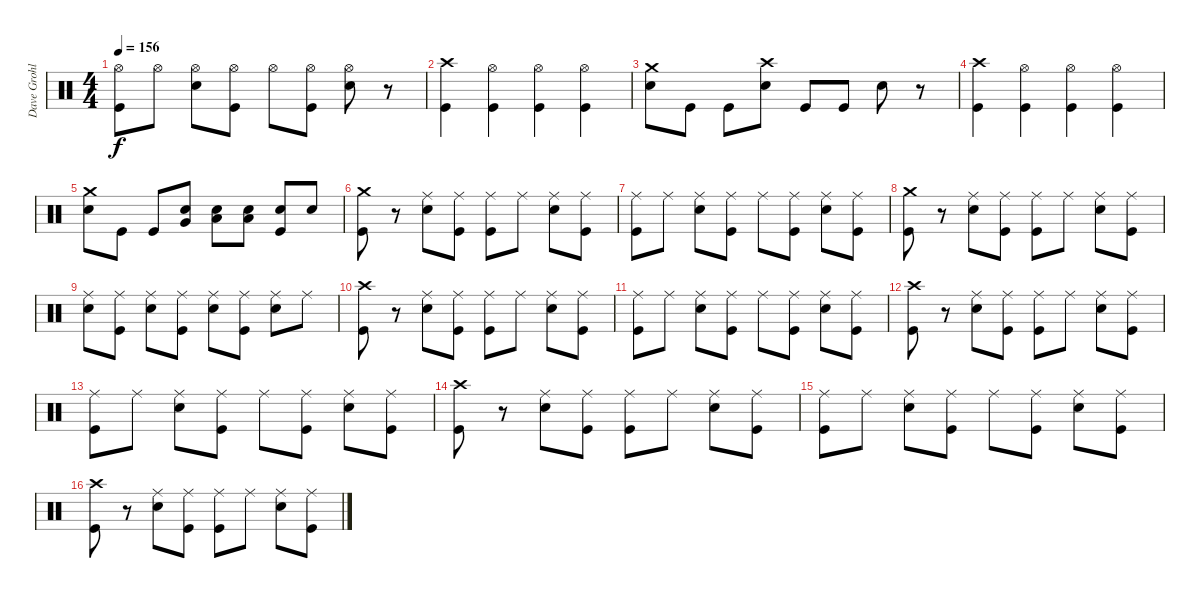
\track ("Dave Grohl - Drums" "Dave Grohl") {instrument percussion}
\staff {score}
\articulation defaults
\ts (4 4)
\tempo 156
\clef neutral
\ks c
("Hi-Hat (open)" "Kick (hit)").8{dy f} "Hi-Hat (open)".8 ("Hi-Hat (open)" "Snare (hit) 2").8 ("Hi-Hat (open)" "Kick (hit)").8 "Hi-Hat (open)".8 ("Hi-Hat (open)" "Kick (hit)").8 ("Hi-Hat (open)" "Snare (hit) 2").8 r.8 |
("Crash high (hit)" "Kick (hit)").4 ("Hi-Hat (open)" "Kick (hit)").4 ("Hi-Hat (open)" "Kick (hit)").4 ("Hi-Hat (open)" "Kick (hit)").4 |
("Crash medium (hit)" "Snare (hit) 2").8 "Kick (hit)".8 "Kick (hit)".8 ("Crash high (hit)" "Snare (hit) 2").8 "Kick (hit)".8 "Kick (hit)".8 "Snare (hit) 2".8 r.8 |
("Crash high (hit)" "Kick (hit)").4 ("Hi-Hat (open)" "Kick (hit)").4 ("Hi-Hat (open)" "Kick (hit)").4 ("Hi-Hat (open)" "Kick (hit)").4 |
("Crash medium (hit)" "Snare (hit) 2").8 "Kick (hit)".8 "Kick (hit)".8 ("Snare (hit) 2" "Very Low Tom (hit)").8 ("Snare (hit) 2" "Low Tom (hit)").8 ("Snare (hit) 2" "Low Tom (hit)").8 ("Snare (hit) 2" "Kick (hit)").8 "Snare (hit) 2".8 |
("Crash medium (hit)" "Kick (hit)").8 r.8 ("Ride (middle)" "Snare (hit) 2").8 ("Ride (middle)" "Kick (hit)").8 ("Ride (middle)" "Kick (hit)").8 "Ride (middle)".8 ("Ride (middle)" "Snare (hit) 2").8 ("Ride (middle)" "Kick (hit)").8 |
("Ride (middle)" "Kick (hit)").8 "Ride (middle)".8 ("Ride (middle)" "Snare (hit) 2").8 ("Ride (middle)" "Kick (hit)").8 "Ride (middle)".8 ("Ride (middle)" "Kick (hit)").8 ("Ride (middle)" "Snare (hit) 2").8 ("Ride (middle)" "Kick (hit)").8 |
("Crash medium (hit)" "Kick (hit)").8 r.8 ("Ride (middle)" "Snare (hit) 2").8 ("Ride (middle)" "Kick (hit)").8 ("Ride (middle)" "Kick (hit)").8 "Ride (middle)".8 ("Ride (middle)" "Snare (hit) 2").8 ("Ride (middle)" "Kick (hit)").8 |
("Ride (middle)" "Snare (hit) 2").8 ("Ride (middle)" "Kick (hit)").8 ("Ride (middle)" "Snare (hit) 2").8 ("Ride (middle)" "Kick (hit)").8 ("Ride (middle)" "Snare (hit) 2").8 ("Ride (middle)" "Kick (hit)").8 ("Ride (middle)" "Snare (hit) 2").8 "Ride (middle)".8 |
("Crash high (hit)" "Kick (hit)").8 r.8 ("Ride (middle)" "Snare (hit) 2").8 ("Ride (middle)" "Kick (hit)").8 ("Ride (middle)" "Kick (hit)").8 "Ride (middle)".8 ("Ride (middle)" "Snare (hit) 2").8 ("Ride (middle)" "Kick (hit)").8 |
("Ride (middle)" "Kick (hit)").8 "Ride (middle)".8 ("Ride (middle)" "Snare (hit) 2").8 ("Ride (middle)" "Kick (hit)").8 "Ride (middle)".8 ("Ride (middle)" "Kick (hit)").8 ("Ride (middle)" "Snare (hit) 2").8 ("Ride (middle)" "Kick (hit)").8 |
("Crash high (hit)" "Kick (hit)").8 r.8 ("Ride (middle)" "Snare (hit) 2").8 ("Ride (middle)" "Kick (hit)").8 ("Ride (middle)" "Kick (hit)").8 "Ride (middle)".8 ("Ride (middle)" "Snare (hit) 2").8 ("Ride (middle)" "Kick (hit)").8 |
("Ride (middle)" "Kick (hit)").8 "Ride (middle)".8 ("Ride (middle)" "Snare (hit) 2").8 ("Ride (middle)" "Kick (hit)").8 "Ride (middle)".8 ("Ride (middle)" "Kick (hit)").8 ("Ride (middle)" "Snare (hit) 2").8 ("Ride (middle)" "Kick (hit)").8 |
("Crash high (hit)" "Kick (hit)").8 r.8 ("Ride (middle)" "Snare (hit) 2").8 ("Ride (middle)" "Kick (hit)").8 ("Ride (middle)" "Kick (hit)").8 "Ride (middle)".8 ("Ride (middle)" "Snare (hit) 2").8 ("Ride (middle)" "Kick (hit)").8 |
("Ride (middle)" "Kick (hit)").8 "Ride (middle)".8 ("Ride (middle)" "Snare (hit) 2").8 ("Ride (middle)" "Kick (hit)").8 "Ride (middle)".8 ("Ride (middle)" "Kick (hit)").8 ("Ride (middle)" "Snare (hit) 2").8 ("Ride (middle)" "Kick (hit)").8 |
("Crash high (hit)" "Kick (hit)").8 r.8 ("Ride (middle)" "Snare (hit) 2").8 ("Ride (middle)" "Kick (hit)").8 ("Ride (middle)" "Kick (hit)").8 "Ride (middle)".8 ("Ride (middle)" "Snare (hit) 2").8 ("Ride (middle)" "Kick (hit)").8
